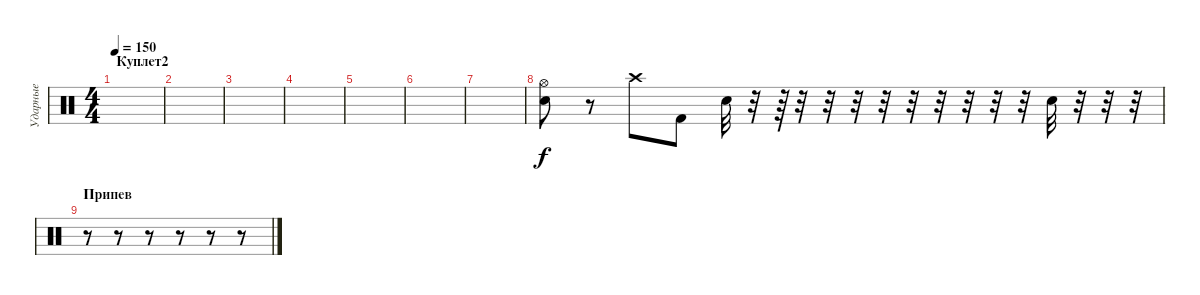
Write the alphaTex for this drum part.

\track ("Ударные" "Ударные") {instrument percussion}
\staff {score}
\articulation defaults
\ts (4 4)
\section ("" "Куплет2")
\tempo 150
\clef neutral
\ks c
|
|
|
|
|
|
|
("Hi-Hat (open)" "Snare (hit) 2").8 r.8 "Crash high (hit)".8 "Kick (hit) 2".8 "Electric Snare (hit)".32 r.32 r.64 r.32 r.32 r.32 r.32 r.32 r.32 r.32 r.32 r.32 "Electric Snare (hit)".32 r.32 r.32 r.32 |
\section ("" "Припев")
r.8 r.8 r.8 r.8 r.8 r.8
